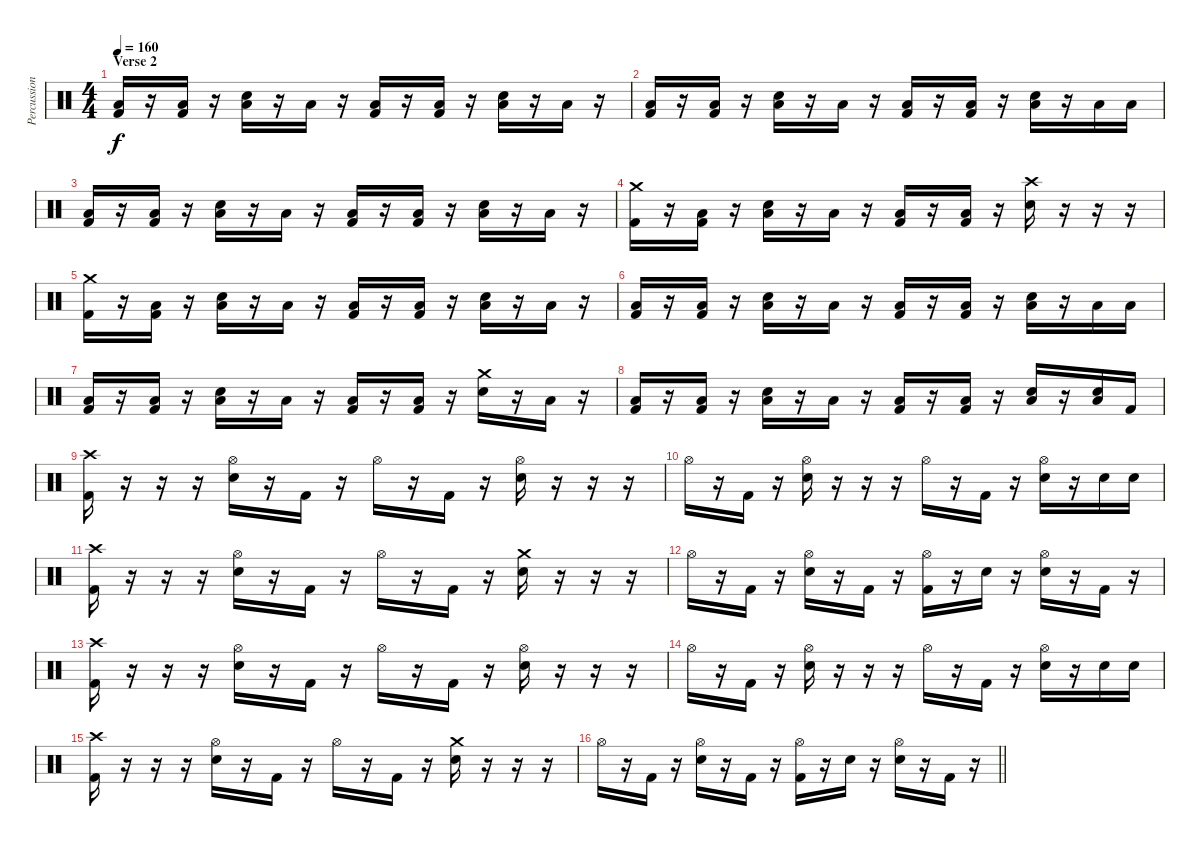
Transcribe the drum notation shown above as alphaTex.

\track ("Percussion" "Percussion") {instrument percussion}
\staff {score}
\articulation defaults
\ts (4 4)
\section ("" "Verse 2")
\tempo 160
\clef neutral
\ks c
("Low Floor Tom (hit)" "Kick (hit) 2").16{dy f} r.16 ("Low Floor Tom (hit)" "Kick (hit) 2").16 r.16 ("Low Floor Tom (hit)" "Snare (hit) 2").16 r.16 "Low Floor Tom (hit)".16 r.16 ("Low Floor Tom (hit)" "Kick (hit) 2").16 r.16 ("Low Floor Tom (hit)" "Kick (hit) 2").16 r.16 ("Low Floor Tom (hit)" "Snare (hit) 2").16 r.16 "Low Floor Tom (hit)".16 r.16 |
("Low Floor Tom (hit)" "Kick (hit) 2").16 r.16 ("Low Floor Tom (hit)" "Kick (hit) 2").16 r.16 ("Low Floor Tom (hit)" "Snare (hit) 2").16 r.16 "Low Floor Tom (hit)".16 r.16 ("Low Floor Tom (hit)" "Kick (hit) 2").16 r.16 ("Low Floor Tom (hit)" "Kick (hit) 2").16 r.16 ("Low Floor Tom (hit)" "Snare (hit) 2").16 r.16 "Low Floor Tom (hit)".16 "Low Floor Tom (hit)".16 |
("Low Floor Tom (hit)" "Kick (hit) 2").16 r.16 ("Low Floor Tom (hit)" "Kick (hit) 2").16 r.16 ("Low Floor Tom (hit)" "Snare (hit) 2").16 r.16 "Low Floor Tom (hit)".16 r.16 ("Low Floor Tom (hit)" "Kick (hit) 2").16 r.16 ("Low Floor Tom (hit)" "Kick (hit) 2").16 r.16 ("Low Floor Tom (hit)" "Snare (hit) 2").16 r.16 "Low Floor Tom (hit)".16 r.16 |
("Crash medium (hit)" "Kick (hit) 2").16 r.16 ("Low Floor Tom (hit)" "Kick (hit) 2").16 r.16 ("Low Floor Tom (hit)" "Snare (hit) 2").16 r.16 "Low Floor Tom (hit)".16 r.16 ("Low Floor Tom (hit)" "Kick (hit) 2").16 r.16 ("Low Floor Tom (hit)" "Kick (hit) 2").16 r.16 ("Crash high (hit)" "Snare (hit) 2").16 r.16 r.16 r.16 |
("Crash medium (hit)" "Kick (hit) 2").16 r.16 ("Low Floor Tom (hit)" "Kick (hit) 2").16 r.16 ("Low Floor Tom (hit)" "Snare (hit) 2").16 r.16 "Low Floor Tom (hit)".16 r.16 ("Low Floor Tom (hit)" "Kick (hit) 2").16 r.16 ("Low Floor Tom (hit)" "Kick (hit) 2").16 r.16 ("Low Floor Tom (hit)" "Snare (hit) 2").16 r.16 "Low Floor Tom (hit)".16 r.16 |
("Low Floor Tom (hit)" "Kick (hit) 2").16 r.16 ("Low Floor Tom (hit)" "Kick (hit) 2").16 r.16 ("Low Floor Tom (hit)" "Snare (hit) 2").16 r.16 "Low Floor Tom (hit)".16 r.16 ("Low Floor Tom (hit)" "Kick (hit) 2").16 r.16 ("Low Floor Tom (hit)" "Kick (hit) 2").16 r.16 ("Low Floor Tom (hit)" "Snare (hit) 2").16 r.16 "Low Floor Tom (hit)".16 "Low Floor Tom (hit)".16 |
("Low Floor Tom (hit)" "Kick (hit) 2").16 r.16 ("Low Floor Tom (hit)" "Kick (hit) 2").16 r.16 ("Low Floor Tom (hit)" "Snare (hit) 2").16 r.16 "Low Floor Tom (hit)".16 r.16 ("Low Floor Tom (hit)" "Kick (hit) 2").16 r.16 ("Low Floor Tom (hit)" "Kick (hit) 2").16 r.16 ("Crash medium (hit)" "Snare (hit) 2").16 r.16 "Low Floor Tom (hit)".16 r.16 |
("Low Floor Tom (hit)" "Kick (hit) 2").16 r.16 ("Low Floor Tom (hit)" "Kick (hit) 2").16 r.16 ("Low Floor Tom (hit)" "Snare (hit) 2").16 r.16 "Low Floor Tom (hit)".16 r.16 ("Low Floor Tom (hit)" "Kick (hit) 2").16 r.16 ("Low Floor Tom (hit)" "Kick (hit) 2").16 r.16 ("Low Floor Tom (hit)" "Snare (hit) 2").16 r.16 ("Low Floor Tom (hit)" "Snare (hit) 2").16 "Kick (hit) 2".16 |
("Crash high (hit)" "Kick (hit) 2").16 r.16 r.16 r.16 ("Hi-Hat (open)" "Snare (hit) 2").16 r.16 "Kick (hit) 2".16 r.16 "Hi-Hat (open)".16 r.16 "Kick (hit) 2".16 r.16 ("Hi-Hat (open)" "Snare (hit) 2").16 r.16 r.16 r.16 |
"Hi-Hat (open)".16 r.16 "Kick (hit) 2".16 r.16 ("Hi-Hat (open)" "Snare (hit) 2").16 r.16 r.16 r.16 "Hi-Hat (open)".16 r.16 "Kick (hit) 2".16 r.16 ("Hi-Hat (open)" "Snare (hit) 2").16 r.16 "Snare (hit) 2".16 "Snare (hit) 2".16 |
("Crash high (hit)" "Kick (hit) 2").16 r.16 r.16 r.16 ("Hi-Hat (open)" "Snare (hit) 2").16 r.16 "Kick (hit) 2".16 r.16 "Hi-Hat (open)".16 r.16 "Kick (hit) 2".16 r.16 ("Crash medium (hit)" "Snare (hit) 2").16 r.16 r.16 r.16 |
"Hi-Hat (open)".16 r.16 "Kick (hit) 2".16 r.16 ("Hi-Hat (open)" "Snare (hit) 2").16 r.16 "Kick (hit) 2".16 r.16 ("Hi-Hat (open)" "Kick (hit) 2").16 r.16 "Snare (hit) 2".16 r.16 ("Hi-Hat (open)" "Snare (hit) 2").16 r.16 "Kick (hit) 2".16 r.16 |
("Crash high (hit)" "Kick (hit) 2").16 r.16 r.16 r.16 ("Hi-Hat (open)" "Snare (hit) 2").16 r.16 "Kick (hit) 2".16 r.16 "Hi-Hat (open)".16 r.16 "Kick (hit) 2".16 r.16 ("Hi-Hat (open)" "Snare (hit) 2").16 r.16 r.16 r.16 |
"Hi-Hat (open)".16 r.16 "Kick (hit) 2".16 r.16 ("Hi-Hat (open)" "Snare (hit) 2").16 r.16 r.16 r.16 "Hi-Hat (open)".16 r.16 "Kick (hit) 2".16 r.16 ("Hi-Hat (open)" "Snare (hit) 2").16 r.16 "Snare (hit) 2".16 "Snare (hit) 2".16 |
("Crash high (hit)" "Kick (hit) 2").16 r.16 r.16 r.16 ("Hi-Hat (open)" "Snare (hit) 2").16 r.16 "Kick (hit) 2".16 r.16 "Hi-Hat (open)".16 r.16 "Kick (hit) 2".16 r.16 ("Crash medium (hit)" "Snare (hit) 2").16 r.16 r.16 r.16 |
\barLineRight lightlight "Hi-Hat (open)".16
r.16 "Kick (hit) 2".16 r.16 ("Hi-Hat (open)" "Snare (hit) 2").16 r.16 "Kick (hit) 2".16 r.16 ("Hi-Hat (open)" "Kick (hit) 2").16 r.16 "Snare (hit) 2".16 r.16 ("Hi-Hat (open)" "Snare (hit) 2").16 r.16 "Kick (hit) 2".16 r.16
